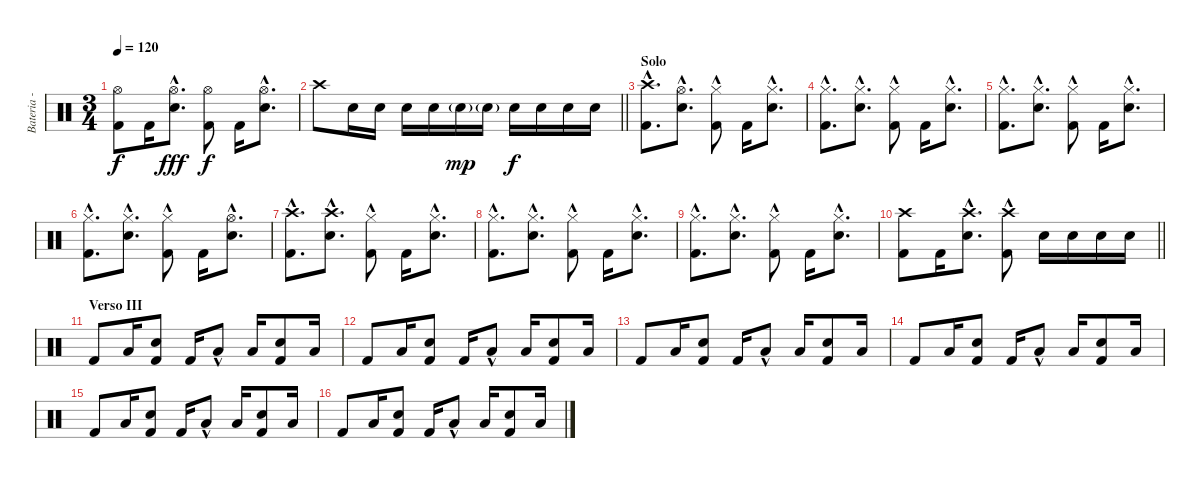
\track ("Bateria - Larzon" "Bateria - ") {instrument percussion}
\staff {score}
\articulation defaults
\ts (3 4)
\tempo 120
\clef neutral
\ks c
("Kick (hit) 2" "Hi-Hat (open)").8{dy f} "Kick (hit) 2".16 ("Electric Snare (hit)"{hac} "Hi-Hat (open)"{hac}).8{d dy fff} ("Kick (hit) 2" "Hi-Hat (open)").8{dy f} "Kick (hit) 2".16 ("Electric Snare (hit)"{hac} "Hi-Hat (open)"{hac}).8{d} |
\barLineRight lightlight "Crash high (hit)".8 "Electric Snare (hit)".16 "Electric Snare (hit)".16 "Electric Snare (hit)".16 "Electric Snare (hit)".16 "Electric Snare (hit)"{g}.16{dy mp} "Electric Snare (hit)"{g}.16 "Electric Snare (hit)".16{dy f} "Electric Snare (hit)".16 "Electric Snare (hit)".16 "Electric Snare (hit)".16
|
\section ("" "Solo")
("Kick (hit) 2" "Crash high (hit)"{hac}).8{d} ("Electric Snare (hit)"{hac} "Hi-Hat (open)"{hac}).8{d} ("Kick (hit) 2"{hac} "Hi-Hat (closed)").8 "Kick (hit) 2".16 ("Electric Snare (hit)"{hac} "Hi-Hat (closed)"{hac}).8{d} |
("Kick (hit) 2" "Hi-Hat (closed)"{hac}).8{d} ("Electric Snare (hit)"{hac} "Hi-Hat (closed)"{hac}).8{d} ("Kick (hit) 2"{hac} "Hi-Hat (closed)").8 "Kick (hit) 2".16 ("Electric Snare (hit)"{hac} "Hi-Hat (closed)"{hac}).8{d} |
("Kick (hit) 2" "Hi-Hat (closed)"{hac}).8{d} ("Electric Snare (hit)"{hac} "Hi-Hat (closed)"{hac}).8{d} ("Kick (hit) 2"{hac} "Hi-Hat (closed)").8 "Kick (hit) 2".16 ("Electric Snare (hit)"{hac} "Hi-Hat (closed)"{hac}).8{d} |
("Kick (hit) 2" "Hi-Hat (closed)"{hac}).8{d} ("Electric Snare (hit)"{hac} "Hi-Hat (closed)"{hac}).8{d} ("Kick (hit) 2"{hac} "Hi-Hat (closed)").8 "Kick (hit) 2".16 ("Electric Snare (hit)"{hac} "Hi-Hat (open)"{hac}).8{d} |
("Kick (hit) 2" "Crash high (hit)"{hac}).8{d} ("Electric Snare (hit)"{hac} "Crash high (hit)"{hac}).8{d} ("Kick (hit) 2"{hac} "Hi-Hat (closed)").8 "Kick (hit) 2".16 ("Electric Snare (hit)"{hac} "Hi-Hat (closed)"{hac}).8{d} |
("Kick (hit) 2" "Hi-Hat (closed)"{hac}).8{d} ("Electric Snare (hit)"{hac} "Hi-Hat (closed)"{hac}).8{d} ("Kick (hit) 2"{hac} "Hi-Hat (closed)").8 "Kick (hit) 2".16 ("Electric Snare (hit)"{hac} "Hi-Hat (closed)"{hac}).8{d} |
("Kick (hit) 2" "Hi-Hat (closed)"{hac}).8{d} ("Electric Snare (hit)"{hac} "Hi-Hat (closed)"{hac}).8{d} ("Kick (hit) 2"{hac} "Hi-Hat (closed)").8 "Kick (hit) 2".16 ("Electric Snare (hit)"{hac} "Hi-Hat (closed)"{hac}).8{d} |
\barLineRight lightlight
("Kick (hit) 2" "Crash high (hit)").8 "Kick (hit) 2".16 ("Electric Snare (hit)"{hac} "Crash high (hit)"{hac}).8{d} ("Kick (hit) 2"{hac} "Crash high (hit)").8 "Electric Snare (hit)".16 "Electric Snare (hit)".16 "Electric Snare (hit)".16 "Electric Snare (hit)".16 |
\section ("" "Verso III")
"Kick (hit) 2".8 "Low Floor Tom (hit)".16 ("Kick (hit) 2" "Electric Snare (hit)").8 "Kick (hit) 2".16 "Low Floor Tom (hit)"{hac}.8 "Low Floor Tom (hit)".16 ("Kick (hit) 2" "Electric Snare (hit)").8 "Low Floor Tom (hit)".16 |
"Kick (hit) 2".8 "Low Floor Tom (hit)".16 ("Kick (hit) 2" "Electric Snare (hit)").8 "Kick (hit) 2".16 "Low Floor Tom (hit)"{hac}.8 "Low Floor Tom (hit)".16 ("Kick (hit) 2" "Electric Snare (hit)").8 "Low Floor Tom (hit)".16 |
"Kick (hit) 2".8 "Low Floor Tom (hit)".16 ("Kick (hit) 2" "Electric Snare (hit)").8 "Kick (hit) 2".16 "Low Floor Tom (hit)"{hac}.8 "Low Floor Tom (hit)".16 ("Kick (hit) 2" "Electric Snare (hit)").8 "Low Floor Tom (hit)".16 |
"Kick (hit) 2".8 "Low Floor Tom (hit)".16 ("Kick (hit) 2" "Electric Snare (hit)").8 "Kick (hit) 2".16 "Low Floor Tom (hit)"{hac}.8 "Low Floor Tom (hit)".16 ("Kick (hit) 2" "Electric Snare (hit)").8 "Low Floor Tom (hit)".16 |
"Kick (hit) 2".8 "Low Floor Tom (hit)".16 ("Kick (hit) 2" "Electric Snare (hit)").8 "Kick (hit) 2".16 "Low Floor Tom (hit)"{hac}.8 "Low Floor Tom (hit)".16 ("Kick (hit) 2" "Electric Snare (hit)").8 "Low Floor Tom (hit)".16 |
"Kick (hit) 2".8 "Low Floor Tom (hit)".16 ("Kick (hit) 2" "Electric Snare (hit)").8 "Kick (hit) 2".16 "Low Floor Tom (hit)"{hac}.8 "Low Floor Tom (hit)".16 ("Kick (hit) 2" "Electric Snare (hit)").8 "Low Floor Tom (hit)".16
